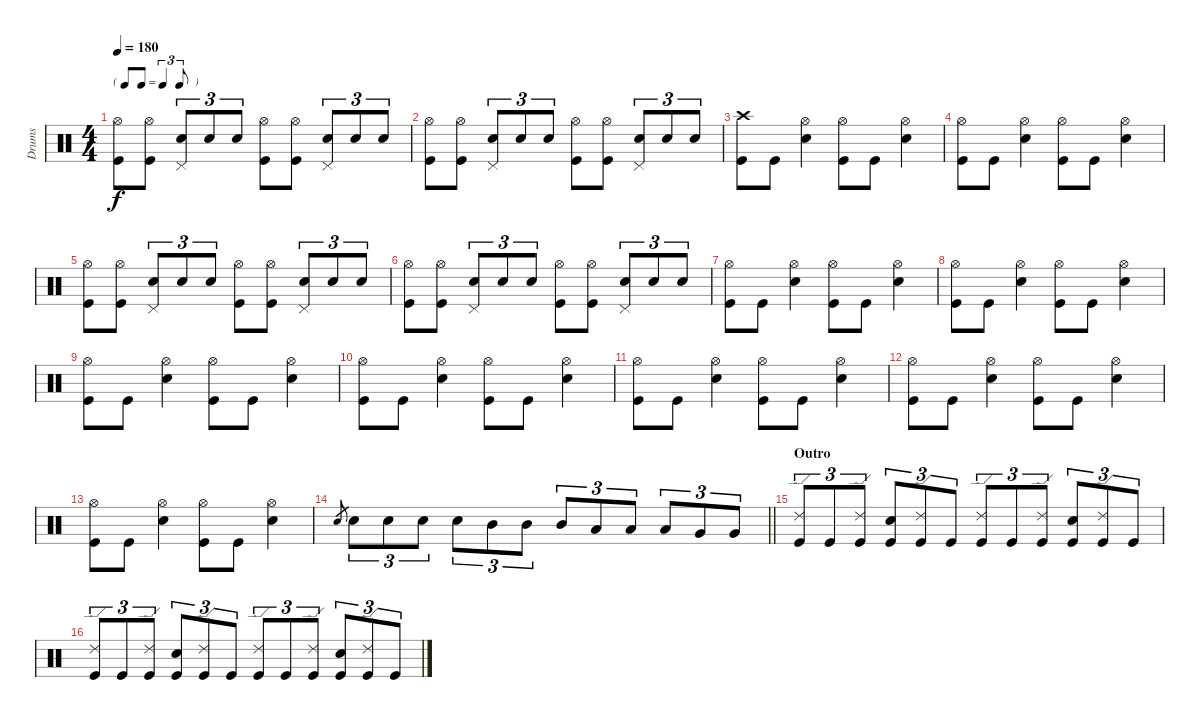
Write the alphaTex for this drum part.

\track ("Drums" "Drums") {instrument percussion}
\staff {score}
\articulation defaults
\ts (4 4)
\tf triplet8th
\tempo 180
\clef neutral
\ks c
("Hi-Hat (open)" "Kick (hit)").8{dy f} ("Hi-Hat (open)" "Kick (hit)").8 ("Pedal Hi-Hat (hit)" "Electric Snare (hit)").8{tu (3 2)} "Electric Snare (hit)".8{tu (3 2)} "Electric Snare (hit)".8{tu (3 2)} ("Hi-Hat (open)" "Kick (hit)").8 ("Hi-Hat (open)" "Kick (hit)").8 ("Pedal Hi-Hat (hit)" "Electric Snare (hit)").8{tu (3 2)} "Electric Snare (hit)".8{tu (3 2)} "Electric Snare (hit)".8{tu (3 2)} |
("Hi-Hat (open)" "Kick (hit)").8 ("Hi-Hat (open)" "Kick (hit)").8 ("Pedal Hi-Hat (hit)" "Electric Snare (hit)").8{tu (3 2)} "Electric Snare (hit)".8{tu (3 2)} "Electric Snare (hit)".8{tu (3 2)} ("Hi-Hat (open)" "Kick (hit)").8 ("Hi-Hat (open)" "Kick (hit)").8 ("Pedal Hi-Hat (hit)" "Electric Snare (hit)").8{tu (3 2)} "Electric Snare (hit)".8{tu (3 2)} "Electric Snare (hit)".8{tu (3 2)} |
("Crash high (hit)" "Kick (hit)").8 "Kick (hit)".8 ("Hi-Hat (open)" "Electric Snare (hit)").4 ("Hi-Hat (open)" "Kick (hit)").8 "Kick (hit)".8 ("Hi-Hat (open)" "Electric Snare (hit)").4 |
("Hi-Hat (open)" "Kick (hit)").8 "Kick (hit)".8 ("Hi-Hat (open)" "Electric Snare (hit)").4 ("Hi-Hat (open)" "Kick (hit)").8 "Kick (hit)".8 ("Hi-Hat (open)" "Electric Snare (hit)").4 |
("Hi-Hat (open)" "Kick (hit)").8 ("Hi-Hat (open)" "Kick (hit)").8 ("Pedal Hi-Hat (hit)" "Electric Snare (hit)").8{tu (3 2)} "Electric Snare (hit)".8{tu (3 2)} "Electric Snare (hit)".8{tu (3 2)} ("Hi-Hat (open)" "Kick (hit)").8 ("Hi-Hat (open)" "Kick (hit)").8 ("Pedal Hi-Hat (hit)" "Electric Snare (hit)").8{tu (3 2)} "Electric Snare (hit)".8{tu (3 2)} "Electric Snare (hit)".8{tu (3 2)} |
("Hi-Hat (open)" "Kick (hit)").8 ("Hi-Hat (open)" "Kick (hit)").8 ("Pedal Hi-Hat (hit)" "Electric Snare (hit)").8{tu (3 2)} "Electric Snare (hit)".8{tu (3 2)} "Electric Snare (hit)".8{tu (3 2)} ("Hi-Hat (open)" "Kick (hit)").8 ("Hi-Hat (open)" "Kick (hit)").8 ("Pedal Hi-Hat (hit)" "Electric Snare (hit)").8{tu (3 2)} "Electric Snare (hit)".8{tu (3 2)} "Electric Snare (hit)".8{tu (3 2)} |
("Hi-Hat (open)" "Kick (hit)").8 "Kick (hit)".8 ("Hi-Hat (open)" "Electric Snare (hit)").4 ("Hi-Hat (open)" "Kick (hit)").8 "Kick (hit)".8 ("Hi-Hat (open)" "Electric Snare (hit)").4 |
("Hi-Hat (open)" "Kick (hit)").8 "Kick (hit)".8 ("Hi-Hat (open)" "Electric Snare (hit)").4 ("Hi-Hat (open)" "Kick (hit)").8 "Kick (hit)".8 ("Hi-Hat (open)" "Electric Snare (hit)").4 |
("Hi-Hat (open)" "Kick (hit)").8 "Kick (hit)".8 ("Hi-Hat (open)" "Electric Snare (hit)").4 ("Hi-Hat (open)" "Kick (hit)").8 "Kick (hit)".8 ("Hi-Hat (open)" "Electric Snare (hit)").4 |
("Hi-Hat (open)" "Kick (hit)").8 "Kick (hit)".8 ("Hi-Hat (open)" "Electric Snare (hit)").4 ("Hi-Hat (open)" "Kick (hit)").8 "Kick (hit)".8 ("Hi-Hat (open)" "Electric Snare (hit)").4 |
("Hi-Hat (open)" "Kick (hit)").8 "Kick (hit)".8 ("Hi-Hat (open)" "Electric Snare (hit)").4 ("Hi-Hat (open)" "Kick (hit)").8 "Kick (hit)".8 ("Hi-Hat (open)" "Electric Snare (hit)").4 |
("Hi-Hat (open)" "Kick (hit)").8 "Kick (hit)".8 ("Hi-Hat (open)" "Electric Snare (hit)").4 ("Hi-Hat (open)" "Kick (hit)").8 "Kick (hit)".8 ("Hi-Hat (open)" "Electric Snare (hit)").4 |
("Hi-Hat (open)" "Kick (hit)").8 "Kick (hit)".8 ("Hi-Hat (open)" "Electric Snare (hit)").4 ("Hi-Hat (open)" "Kick (hit)").8 "Kick (hit)".8 ("Hi-Hat (open)" "Electric Snare (hit)").4 |
\barLineRight lightlight "Electric Snare (hit)".8{gr} "Electric Snare (hit)".8{tu (3 2)} "Electric Snare (hit)".8{tu (3 2)} "Electric Snare (hit)".8{tu (3 2)} "Electric Snare (hit)".8{tu (3 2)} "Mid Tom (hit)".8{tu (3 2)} "Mid Tom (hit)".8{tu (3 2)} "Mid Tom (hit)".8{tu (3 2)} "Low Tom (hit)".8{tu (3 2)} "Low Tom (hit)".8{tu (3 2)} "Low Tom (hit)".8{tu (3 2)} "Very Low Tom (hit)".8{tu (3 2)} "Very Low Tom (hit)".8{tu (3 2)}
|
\section ("" "Outro")
("Ride (edge) 2" "Kick (hit)").8{tu (3 2)} "Kick (hit)".8{tu (3 2)} ("Ride (edge) 2" "Kick (hit)").8{tu (3 2)} ("Electric Snare (hit)" "Kick (hit)").8{tu (3 2)} ("Ride (edge) 2" "Kick (hit)").8{tu (3 2)} "Kick (hit)".8{tu (3 2)} ("Ride (edge) 2" "Kick (hit)").8{tu (3 2)} "Kick (hit)".8{tu (3 2)} ("Ride (edge) 2" "Kick (hit)").8{tu (3 2)} ("Electric Snare (hit)" "Kick (hit)").8{tu (3 2)} ("Ride (edge) 2" "Kick (hit)").8{tu (3 2)} "Kick (hit)".8{tu (3 2)} |
("Ride (edge) 2" "Kick (hit)").8{tu (3 2)} "Kick (hit)".8{tu (3 2)} ("Ride (edge) 2" "Kick (hit)").8{tu (3 2)} ("Electric Snare (hit)" "Kick (hit)").8{tu (3 2)} ("Ride (edge) 2" "Kick (hit)").8{tu (3 2)} "Kick (hit)".8{tu (3 2)} ("Ride (edge) 2" "Kick (hit)").8{tu (3 2)} "Kick (hit)".8{tu (3 2)} ("Ride (edge) 2" "Kick (hit)").8{tu (3 2)} ("Electric Snare (hit)" "Kick (hit)").8{tu (3 2)} ("Ride (edge) 2" "Kick (hit)").8{tu (3 2)} "Kick (hit)".8{tu (3 2)}
